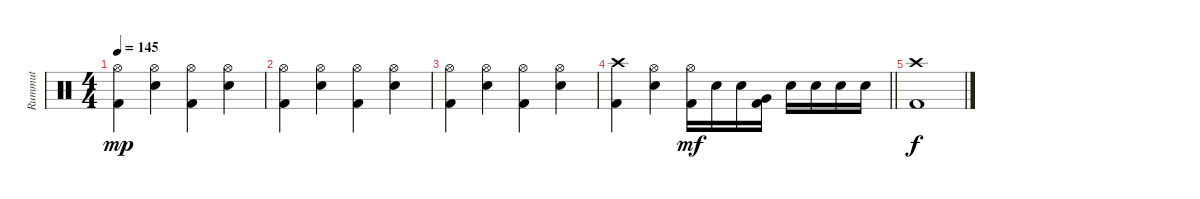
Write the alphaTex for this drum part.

\track ("Rummut" "Rummut") {instrument percussion}
\staff {score}
\articulation defaults
\ts (4 4)
\tempo 145
\clef neutral
\ks c
("Hi-Hat (open)" "Kick (hit) 2").4{dy mp} ("Hi-Hat (open)" "Snare (hit) 2").4 ("Hi-Hat (open)" "Kick (hit) 2").4 ("Hi-Hat (open)" "Snare (hit) 2").4 |
("Hi-Hat (open)" "Kick (hit) 2").4 ("Hi-Hat (open)" "Snare (hit) 2").4 ("Hi-Hat (open)" "Kick (hit) 2").4 ("Hi-Hat (open)" "Snare (hit) 2").4 |
("Hi-Hat (open)" "Kick (hit) 2").4 ("Hi-Hat (open)" "Snare (hit) 2").4 ("Hi-Hat (open)" "Kick (hit) 2").4 ("Hi-Hat (open)" "Snare (hit) 2").4 |
\barLineRight lightlight
("Crash high (hit)" "Kick (hit) 2").4 ("Hi-Hat (open)" "Snare (hit) 2").4 ("Hi-Hat (open)" "Kick (hit) 2").16{dy mf} "Electric Snare (hit)".16 "Electric Snare (hit)".16 ("Very Low Tom (hit)" "Kick (hit) 2").16 "Electric Snare (hit)".16 "Electric Snare (hit)".16 "Electric Snare (hit)".16 "Electric Snare (hit)".16 |
("Crash high (hit)" "Kick (hit) 2").1{dy f}
